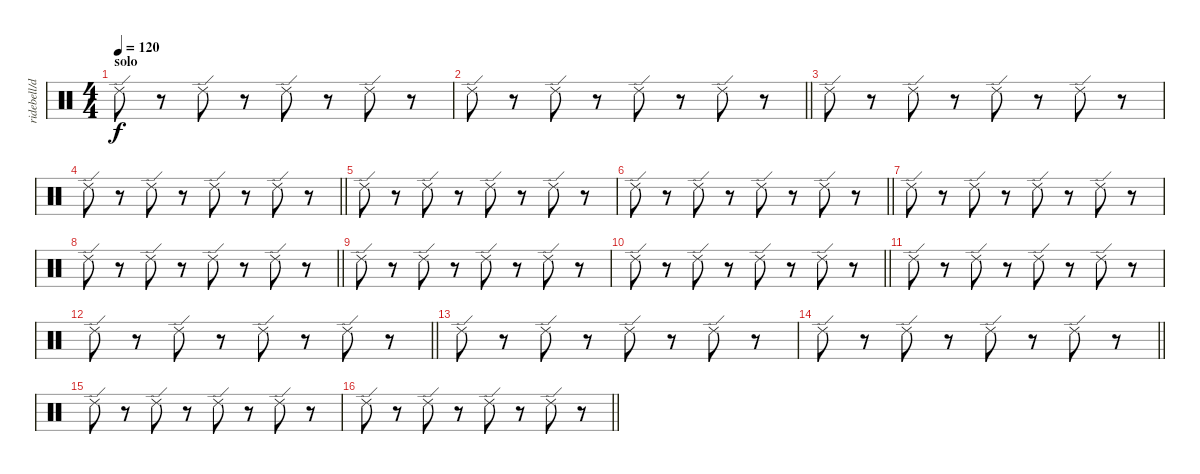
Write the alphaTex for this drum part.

\track ("ridebell/drum" "ridebell/d") {instrument percussion}
\staff {score}
\articulation defaults
\ts (4 4)
\section ("" "solo")
\tempo 120
\clef neutral
\ks c "Ride (edge) 2".8{dy f}
r.8 "Ride (edge) 2".8 r.8 "Ride (edge) 2".8 r.8 "Ride (edge) 2".8 r.8 |
\barLineRight lightlight "Ride (edge) 2".8
r.8 "Ride (edge) 2".8 r.8 "Ride (edge) 2".8 r.8 "Ride (edge) 2".8 r.8 |
"Ride (edge) 2".8 r.8 "Ride (edge) 2".8 r.8 "Ride (edge) 2".8 r.8 "Ride (edge) 2".8 r.8 |
\barLineRight lightlight "Ride (edge) 2".8
r.8 "Ride (edge) 2".8 r.8 "Ride (edge) 2".8 r.8 "Ride (edge) 2".8 r.8 |
"Ride (edge) 2".8 r.8 "Ride (edge) 2".8 r.8 "Ride (edge) 2".8 r.8 "Ride (edge) 2".8 r.8 |
\barLineRight lightlight "Ride (edge) 2".8
r.8 "Ride (edge) 2".8 r.8 "Ride (edge) 2".8 r.8 "Ride (edge) 2".8 r.8 |
"Ride (edge) 2".8 r.8 "Ride (edge) 2".8 r.8 "Ride (edge) 2".8 r.8 "Ride (edge) 2".8 r.8 |
\barLineRight lightlight "Ride (edge) 2".8
r.8 "Ride (edge) 2".8 r.8 "Ride (edge) 2".8 r.8 "Ride (edge) 2".8 r.8 |
"Ride (edge) 2".8 r.8 "Ride (edge) 2".8 r.8 "Ride (edge) 2".8 r.8 "Ride (edge) 2".8 r.8 |
\barLineRight lightlight "Ride (edge) 2".8
r.8 "Ride (edge) 2".8 r.8 "Ride (edge) 2".8 r.8 "Ride (edge) 2".8 r.8 |
"Ride (edge) 2".8 r.8 "Ride (edge) 2".8 r.8 "Ride (edge) 2".8 r.8 "Ride (edge) 2".8 r.8 |
\barLineRight lightlight "Ride (edge) 2".8
r.8 "Ride (edge) 2".8 r.8 "Ride (edge) 2".8 r.8 "Ride (edge) 2".8 r.8 |
"Ride (edge) 2".8 r.8 "Ride (edge) 2".8 r.8 "Ride (edge) 2".8 r.8 "Ride (edge) 2".8 r.8 |
\barLineRight lightlight "Ride (edge) 2".8
r.8 "Ride (edge) 2".8 r.8 "Ride (edge) 2".8 r.8 "Ride (edge) 2".8 r.8 |
"Ride (edge) 2".8 r.8 "Ride (edge) 2".8 r.8 "Ride (edge) 2".8 r.8 "Ride (edge) 2".8 r.8 |
\barLineRight lightlight "Ride (edge) 2".8
r.8 "Ride (edge) 2".8 r.8 "Ride (edge) 2".8 r.8 "Ride (edge) 2".8 r.8
